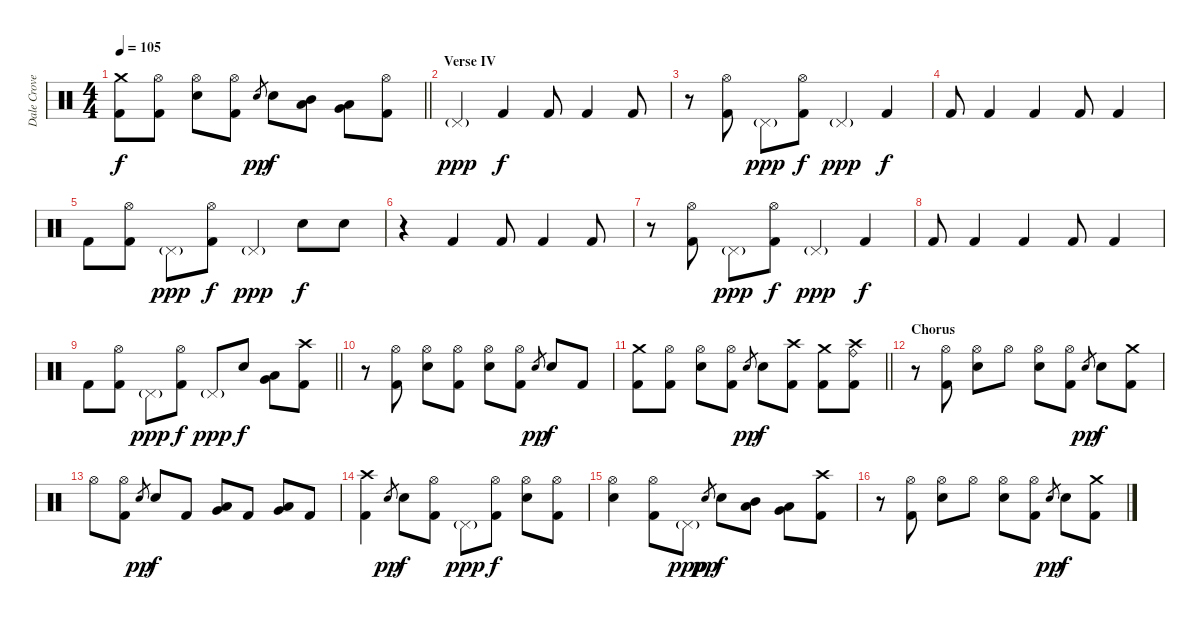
\track ("Dale Crover" "Dale Crove") {instrument percussion}
\staff {score}
\articulation defaults
\ts (4 4)
\tempo 105
\clef neutral
\barLineRight lightlight
\ks c
("Crash medium (hit)" "Kick (hit) 2").8{dy f} ("Hi-Hat (open)" "Kick (hit) 2").8 ("Hi-Hat (open)" "Electric Snare (hit)").8 ("Hi-Hat (open)" "Kick (hit) 2").8 "Electric Snare (hit)".8{gr dy pp} "Electric Snare (hit)".8{dy f} ("Mid Tom (hit)" "Low Tom (hit)").8 ("Low Tom (hit)" "Very Low Tom (hit)").8 ("Hi-Hat (open)" "Kick (hit) 2").8 |
\section ("" "Verse IV")
"Pedal Hi-Hat (hit)"{g}.4{dy ppp} "Kick (hit) 2".4{dy f} "Kick (hit) 2".8 "Kick (hit) 2".4 "Kick (hit) 2".8 |
r.8 ("Hi-Hat (open)" "Kick (hit) 2").8 "Pedal Hi-Hat (hit)"{g}.8{dy ppp} ("Hi-Hat (open)" "Kick (hit) 2").8{dy f} "Pedal Hi-Hat (hit)"{g}.4{dy ppp} "Kick (hit) 2".4{dy f} |
"Kick (hit) 2".8 "Kick (hit) 2".4 "Kick (hit) 2".4 "Kick (hit) 2".8 "Kick (hit) 2".4 |
"Kick (hit) 2".8 ("Hi-Hat (open)" "Kick (hit) 2").8 "Pedal Hi-Hat (hit)"{g}.8{dy ppp} ("Hi-Hat (open)" "Kick (hit) 2").8{dy f} "Pedal Hi-Hat (hit)"{g}.4{dy ppp} "Electric Snare (hit)".8{dy f} "Electric Snare (hit)".8 |
r.4 "Kick (hit) 2".4 "Kick (hit) 2".8 "Kick (hit) 2".4 "Kick (hit) 2".8 |
r.8 ("Hi-Hat (open)" "Kick (hit) 2").8 "Pedal Hi-Hat (hit)"{g}.8{dy ppp} ("Hi-Hat (open)" "Kick (hit) 2").8{dy f} "Pedal Hi-Hat (hit)"{g}.4{dy ppp} "Kick (hit) 2".4{dy f} |
"Kick (hit) 2".8 "Kick (hit) 2".4 "Kick (hit) 2".4 "Kick (hit) 2".8 "Kick (hit) 2".4 |
\barLineRight lightlight "Kick (hit) 2".8
("Hi-Hat (open)" "Kick (hit) 2").8 "Pedal Hi-Hat (hit)"{g}.8{dy ppp} ("Hi-Hat (open)" "Kick (hit) 2").8{dy f} "Pedal Hi-Hat (hit)"{g}.8{dy ppp} "Electric Snare (hit)".8{dy f} ("Low Tom (hit)" "Very Low Tom (hit)").8 ("Crash high (hit)" "Kick (hit) 2").8 |
r.8 ("Hi-Hat (open)" "Kick (hit) 2").8 ("Hi-Hat (open)" "Electric Snare (hit)").8 ("Hi-Hat (open)" "Kick (hit) 2").8 ("Hi-Hat (open)" "Electric Snare (hit)").8 ("Hi-Hat (open)" "Kick (hit) 2").8 "Electric Snare (hit)".8{gr dy pp} "Electric Snare (hit)".8{dy f} "Kick (hit) 2".8 |
\barLineRight lightlight
("Crash medium (hit)" "Kick (hit) 2").8 ("Hi-Hat (open)" "Kick (hit) 2").8 ("Hi-Hat (open)" "Electric Snare (hit)").8 ("Hi-Hat (open)" "Kick (hit) 2").8 "Electric Snare (hit)".8{gr dy pp} "Electric Snare (hit)".8{dy f} ("Crash high (hit)" "Kick (hit) 2").8 ("Crash medium (hit)" "Kick (hit) 2").8 ("Ride (bell)" "Crash high (hit)" "Kick (hit) 2").8 |
\section ("" "Chorus")
r.8 ("Hi-Hat (open)" "Kick (hit) 2").8 ("Hi-Hat (open)" "Electric Snare (hit)").8 "Hi-Hat (open)".8 ("Hi-Hat (open)" "Electric Snare (hit)").8 ("Hi-Hat (open)" "Kick (hit) 2").8 "Electric Snare (hit)".8{gr dy pp} "Electric Snare (hit)".8{dy f} ("Crash medium (hit)" "Kick (hit) 2").8 |
"Hi-Hat (open)".8 ("Hi-Hat (open)" "Kick (hit) 2").8 "Electric Snare (hit)".8{gr dy pp} "Electric Snare (hit)".8{dy f} "Kick (hit) 2".8 ("Low Tom (hit)" "Very Low Tom (hit)").8 "Kick (hit) 2".8 ("Very Low Tom (hit)" "Low Floor Tom (hit)").8 "Kick (hit) 2".8 |
("Crash high (hit)" "Kick (hit) 2").4 "Electric Snare (hit)".8{gr dy pp} "Electric Snare (hit)".8{dy f} ("Hi-Hat (open)" "Kick (hit) 2").8 "Pedal Hi-Hat (hit)"{g}.8{dy ppp} ("Hi-Hat (open)" "Kick (hit) 2").8{dy f} ("Hi-Hat (open)" "Electric Snare (hit)").8 ("Hi-Hat (open)" "Kick (hit) 2").8 |
("Hi-Hat (open)" "Electric Snare (hit)").4 ("Hi-Hat (open)" "Kick (hit) 2").8 "Pedal Hi-Hat (hit)"{g}.8{dy ppp} "Electric Snare (hit)".8{gr dy pp} "Electric Snare (hit)".8{dy f} ("Mid Tom (hit)" "Low Tom (hit)").8 ("Low Tom (hit)" "Very Low Tom (hit)").8 ("Crash high (hit)" "Kick (hit) 2").8 |
r.8 ("Hi-Hat (open)" "Kick (hit) 2").8 ("Hi-Hat (open)" "Electric Snare (hit)").8 "Hi-Hat (open)".8 ("Hi-Hat (open)" "Electric Snare (hit)").8 ("Hi-Hat (open)" "Kick (hit) 2").8 "Electric Snare (hit)".8{gr dy pp} "Electric Snare (hit)".8{dy f} ("Crash medium (hit)" "Kick (hit) 2").8
